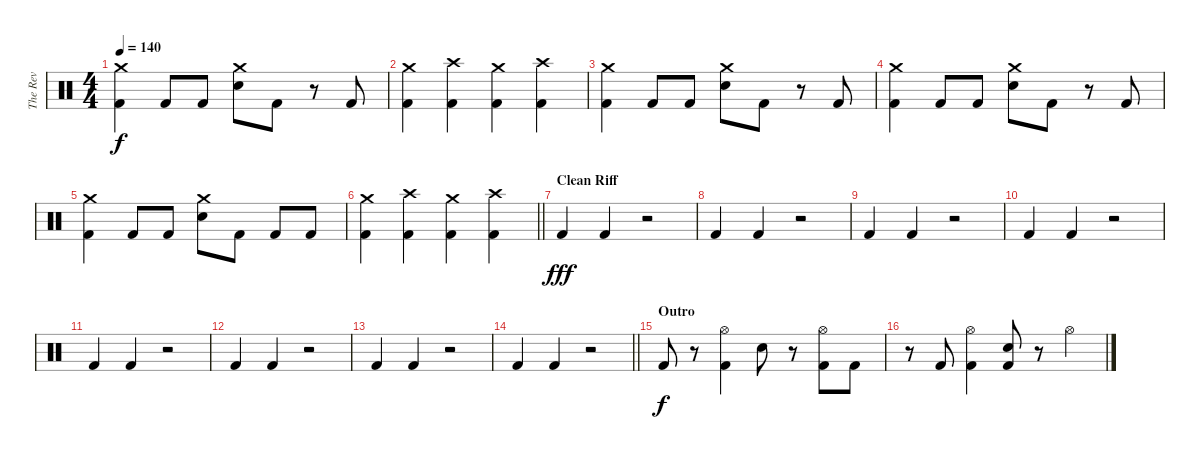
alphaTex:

\track ("The Rev" "The Rev") {instrument percussion}
\staff {score}
\articulation defaults
\ts (4 4)
\tempo 140
\clef neutral
\ks c
("Crash medium (hit)" "Kick (hit) 2").4{dy f} "Kick (hit) 2".8 "Kick (hit) 2".8 ("Crash medium (hit)" "Snare (hit) 2").8 "Kick (hit) 2".8 r.8 "Kick (hit) 2".8 |
("Crash medium (hit)" "Kick (hit) 2").4 ("Crash high (hit)" "Kick (hit) 2").4 ("Crash medium (hit)" "Kick (hit) 2").4 ("Crash high (hit)" "Kick (hit) 2").4 |
("Crash medium (hit)" "Kick (hit) 2").4 "Kick (hit) 2".8 "Kick (hit) 2".8 ("Crash medium (hit)" "Snare (hit) 2").8 "Kick (hit) 2".8 r.8 "Kick (hit) 2".8 |
("Crash medium (hit)" "Kick (hit) 2").4 "Kick (hit) 2".8 "Kick (hit) 2".8 ("Crash medium (hit)" "Snare (hit) 2").8 "Kick (hit) 2".8 r.8 "Kick (hit) 2".8 |
("Crash medium (hit)" "Kick (hit) 2").4 "Kick (hit) 2".8 "Kick (hit) 2".8 ("Crash medium (hit)" "Snare (hit) 2").8 "Kick (hit) 2".8 "Kick (hit) 2".8 "Kick (hit) 2".8 |
\barLineRight lightlight
("Crash medium (hit)" "Kick (hit) 2").4 ("Crash high (hit)" "Kick (hit) 2").4 ("Crash medium (hit)" "Kick (hit) 2").4 ("Crash high (hit)" "Kick (hit) 2").4 |
\section ("" "Clean Riff")
"Kick (hit) 2".4{dy fff} "Kick (hit) 2".4 r.2 |
"Kick (hit) 2".4 "Kick (hit) 2".4 r.2 |
"Kick (hit) 2".4 "Kick (hit) 2".4 r.2 |
"Kick (hit) 2".4 "Kick (hit) 2".4 r.2 |
"Kick (hit) 2".4 "Kick (hit) 2".4 r.2 |
"Kick (hit) 2".4 "Kick (hit) 2".4 r.2 |
"Kick (hit) 2".4 "Kick (hit) 2".4 r.2 |
\barLineRight lightlight "Kick (hit) 2".4 "Kick (hit) 2".4
r.2 |
\section ("" "Outro")
"Kick (hit) 2".8{dy f} r.8 ("Hi-Hat (open)" "Kick (hit) 2").4 "Snare (hit) 2".8 r.8 ("Hi-Hat (open)" "Kick (hit) 2").8 "Kick (hit) 2".8 |
r.8 "Kick (hit) 2".8 ("Hi-Hat (open)" "Kick (hit) 2").4 ("Snare (hit) 2" "Kick (hit) 2").8 r.8 "Hi-Hat (open)".4
